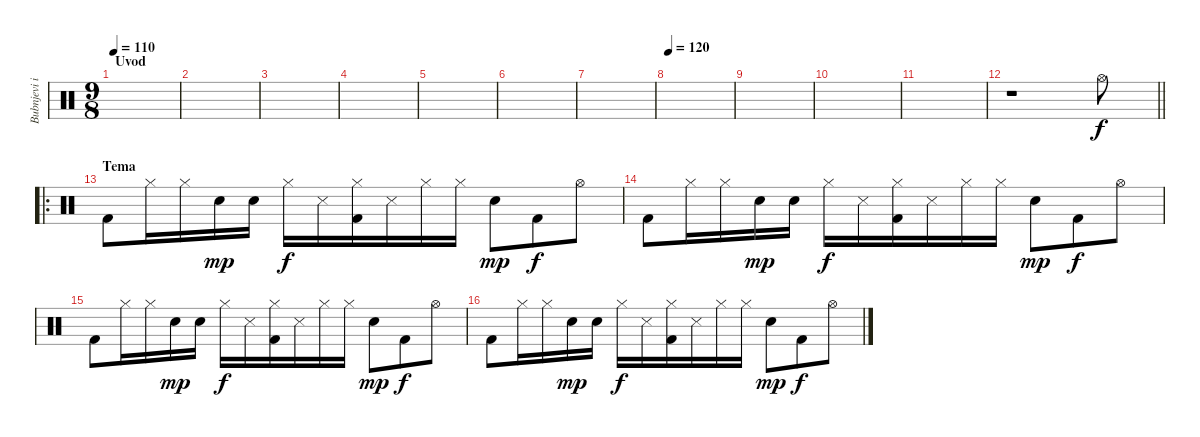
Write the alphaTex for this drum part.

\track ("Bubnjevi i perkusije" "Bubnjevi i") {instrument percussion}
\staff {score}
\articulation defaults
\ts (9 8)
\section ("" "Uvod")
\tempo 110
\clef neutral
\ks c
|
|
|
|
|
|
|
\tempo 120
|
|
|
|
\barLineRight lightlight
r.1 "Hi-Hat (open)".8 |
\ro
\section ("" "Tema")
"Kick (hit) 2".8 "Hi-Hat (closed)".16 "Hi-Hat (closed)".16 "Electric Snare (hit)".16{dy mp} "Electric Snare (hit)".16 "Hi-Hat (closed)".16{dy f} "Snare (side stick) 3".16 ("Hi-Hat (closed)" "Kick (hit) 2").16 "Snare (side stick) 3".16 "Hi-Hat (closed)".16 "Hi-Hat (closed)".16 "Electric Snare (hit)".8{dy mp} "Kick (hit) 2".8{dy f} "Hi-Hat (open)".8 |
"Kick (hit) 2".8 "Hi-Hat (closed)".16 "Hi-Hat (closed)".16 "Electric Snare (hit)".16{dy mp} "Electric Snare (hit)".16 "Hi-Hat (closed)".16{dy f} "Snare (side stick) 3".16 ("Hi-Hat (closed)" "Kick (hit) 2").16 "Snare (side stick) 3".16 "Hi-Hat (closed)".16 "Hi-Hat (closed)".16 "Electric Snare (hit)".8{dy mp} "Kick (hit) 2".8{dy f} "Hi-Hat (open)".8 |
"Kick (hit) 2".8 "Hi-Hat (closed)".16 "Hi-Hat (closed)".16 "Electric Snare (hit)".16{dy mp} "Electric Snare (hit)".16 "Hi-Hat (closed)".16{dy f} "Snare (side stick) 3".16 ("Hi-Hat (closed)" "Kick (hit) 2").16 "Snare (side stick) 3".16 "Hi-Hat (closed)".16 "Hi-Hat (closed)".16 "Electric Snare (hit)".8{dy mp} "Kick (hit) 2".8{dy f} "Hi-Hat (open)".8 |
"Kick (hit) 2".8 "Hi-Hat (closed)".16 "Hi-Hat (closed)".16 "Electric Snare (hit)".16{dy mp} "Electric Snare (hit)".16 "Hi-Hat (closed)".16{dy f} "Snare (side stick) 3".16 ("Hi-Hat (closed)" "Kick (hit) 2").16 "Snare (side stick) 3".16 "Hi-Hat (closed)".16 "Hi-Hat (closed)".16 "Electric Snare (hit)".8{dy mp} "Kick (hit) 2".8{dy f} "Hi-Hat (open)".8
